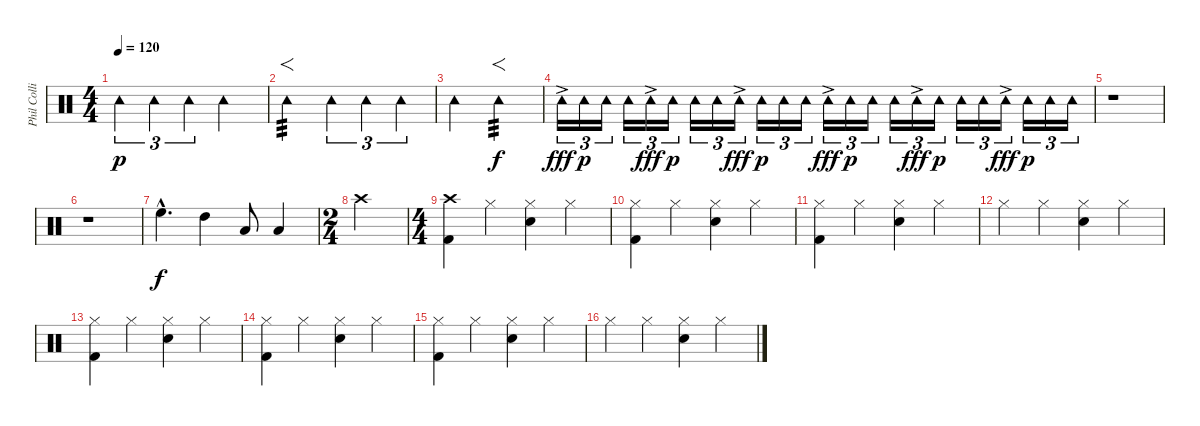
\track ("Phil Collins" "Phil Colli") {instrument percussion}
\staff {score}
\articulation defaults
\ts (4 4)
\tempo 120
\clef neutral
\ks c "Tambourine (hit)".4{tu (3 2) dy p} "Tambourine (hit)".4{tu (3 2)} "Tambourine (hit)".4{tu (3 2)} "Tambourine (hit)".2
|
"Tambourine (hit)".2{f tp 3} "Tambourine (hit)".4{tu (3 2)} "Tambourine (hit)".4{tu (3 2)} "Tambourine (hit)".4{tu (3 2)} |
"Tambourine (hit)".2 "Tambourine (hit)".2{f tp 3 dy f} |
"Tambourine (hit)"{ac}.16{tu (3 2) dy fff} "Tambourine (hit)".16{tu (3 2) dy p} "Tambourine (hit)".16{tu (3 2)} "Tambourine (hit)".16{tu (3 2)} "Tambourine (hit)"{ac}.16{tu (3 2) dy fff} "Tambourine (hit)".16{tu (3 2) dy p} "Tambourine (hit)".16{tu (3 2)} "Tambourine (hit)".16{tu (3 2)} "Tambourine (hit)"{ac}.16{tu (3 2) dy fff} "Tambourine (hit)".16{tu (3 2) dy p} "Tambourine (hit)".16{tu (3 2)} "Tambourine (hit)".16{tu (3 2)} "Tambourine (hit)"{ac}.16{tu (3 2) dy fff} "Tambourine (hit)".16{tu (3 2) dy p} "Tambourine (hit)".16{tu (3 2)} "Tambourine (hit)".16{tu (3 2)} "Tambourine (hit)"{ac}.16{tu (3 2) dy fff} "Tambourine (hit)".16{tu (3 2) dy p} "Tambourine (hit)".16{tu (3 2)} "Tambourine (hit)".16{tu (3 2)} "Tambourine (hit)"{ac}.16{tu (3 2) dy fff} "Tambourine (hit)".16{tu (3 2) dy p} "Tambourine (hit)".16{tu (3 2)} "Tambourine (hit)".16{tu (3 2)} |
r.1 |
r.1 |
"High Floor Tom (hit)"{hac}.4{d dy f} "High Tom (hit)".4 "Low Tom (hit)".8 "Low Tom (hit)".4 |
\ts (2 4)
"Crash high (hit)".2 |
\ts (4 4)
("Crash high (hit)" "Kick (hit) 2").4 "Hi-Hat (closed)".4 ("Hi-Hat (closed)" "Snare (hit) 2").4 "Hi-Hat (closed)".4 |
("Hi-Hat (closed)" "Kick (hit) 2").4 "Hi-Hat (closed)".4 ("Hi-Hat (closed)" "Snare (hit) 2").4 "Hi-Hat (closed)".4 |
("Hi-Hat (closed)" "Kick (hit) 2").4 "Hi-Hat (closed)".4 ("Hi-Hat (closed)" "Snare (hit) 2").4 "Hi-Hat (closed)".4 |
"Hi-Hat (closed)".4 "Hi-Hat (closed)".4 ("Hi-Hat (closed)" "Snare (hit) 2").4 "Hi-Hat (closed)".4 |
("Hi-Hat (closed)" "Kick (hit) 2").4 "Hi-Hat (closed)".4 ("Hi-Hat (closed)" "Snare (hit) 2").4 "Hi-Hat (closed)".4 |
("Hi-Hat (closed)" "Kick (hit) 2").4 "Hi-Hat (closed)".4 ("Hi-Hat (closed)" "Snare (hit) 2").4 "Hi-Hat (closed)".4 |
("Hi-Hat (closed)" "Kick (hit) 2").4 "Hi-Hat (closed)".4 ("Hi-Hat (closed)" "Snare (hit) 2").4 "Hi-Hat (closed)".4 |
"Hi-Hat (closed)".4 "Hi-Hat (closed)".4 ("Hi-Hat (closed)" "Snare (hit) 2").4 "Hi-Hat (closed)".4
